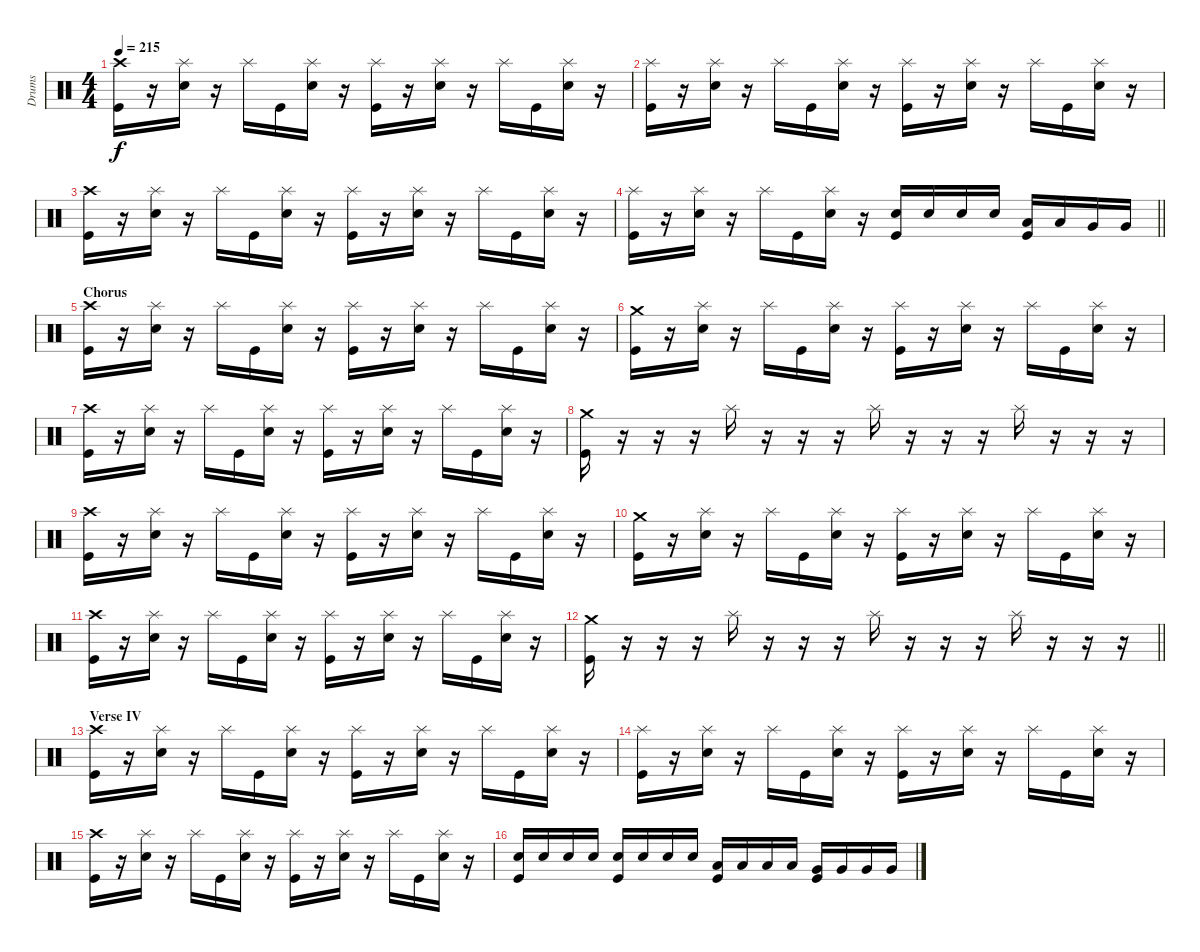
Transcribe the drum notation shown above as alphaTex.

\track ("Drums" "Drums") {instrument percussion}
\staff {score}
\articulation defaults
\ts (4 4)
\tempo 215
\clef neutral
\ks c
("Crash high (hit)" "Kick (hit)").16{dy f} r.16 ("Splash (hit)" "Electric Snare (hit)").16 r.16 "Splash (hit)".16 "Kick (hit)".16 ("Splash (hit)" "Electric Snare (hit)").16 r.16 ("Splash (hit)" "Kick (hit)").16 r.16 ("Splash (hit)" "Electric Snare (hit)").16 r.16 "Splash (hit)".16 "Kick (hit)".16 ("Splash (hit)" "Electric Snare (hit)").16 r.16 |
("Splash (hit)" "Kick (hit)").16 r.16 ("Splash (hit)" "Electric Snare (hit)").16 r.16 "Splash (hit)".16 "Kick (hit)".16 ("Splash (hit)" "Electric Snare (hit)").16 r.16 ("Splash (hit)" "Kick (hit)").16 r.16 ("Splash (hit)" "Electric Snare (hit)").16 r.16 "Splash (hit)".16 "Kick (hit)".16 ("Splash (hit)" "Electric Snare (hit)").16 r.16 |
("Crash high (hit)" "Kick (hit)").16 r.16 ("Splash (hit)" "Electric Snare (hit)").16 r.16 "Splash (hit)".16 "Kick (hit)".16 ("Splash (hit)" "Electric Snare (hit)").16 r.16 ("Splash (hit)" "Kick (hit)").16 r.16 ("Splash (hit)" "Electric Snare (hit)").16 r.16 "Splash (hit)".16 "Kick (hit)".16 ("Splash (hit)" "Electric Snare (hit)").16 r.16 |
\barLineRight lightlight
("Splash (hit)" "Kick (hit)").16 r.16 ("Splash (hit)" "Electric Snare (hit)").16 r.16 "Splash (hit)".16 "Kick (hit)".16 ("Splash (hit)" "Electric Snare (hit)").16 r.16 ("Electric Snare (hit)" "Kick (hit)").16 "Electric Snare (hit)".16 "Electric Snare (hit)".16 "Electric Snare (hit)".16 ("Low Tom (hit)" "Kick (hit)").16 "Low Tom (hit)".16 "Very Low Tom (hit)".16 "Very Low Tom (hit)".16 |
\section ("" "Chorus")
("Crash high (hit)" "Kick (hit)").16 r.16 ("Splash (hit)" "Electric Snare (hit)").16 r.16 "Splash (hit)".16 "Kick (hit)".16 ("Splash (hit)" "Electric Snare (hit)").16 r.16 ("Splash (hit)" "Kick (hit)").16 r.16 ("Splash (hit)" "Electric Snare (hit)").16 r.16 "Splash (hit)".16 "Kick (hit)".16 ("Splash (hit)" "Electric Snare (hit)").16 r.16 |
("Crash medium (hit)" "Kick (hit)").16 r.16 ("Splash (hit)" "Electric Snare (hit)").16 r.16 "Splash (hit)".16 "Kick (hit)".16 ("Splash (hit)" "Electric Snare (hit)").16 r.16 ("Splash (hit)" "Kick (hit)").16 r.16 ("Splash (hit)" "Electric Snare (hit)").16 r.16 "Splash (hit)".16 "Kick (hit)".16 ("Splash (hit)" "Electric Snare (hit)").16 r.16 |
("Crash high (hit)" "Kick (hit)").16 r.16 ("Splash (hit)" "Electric Snare (hit)").16 r.16 "Splash (hit)".16 "Kick (hit)".16 ("Splash (hit)" "Electric Snare (hit)").16 r.16 ("Splash (hit)" "Kick (hit)").16 r.16 ("Splash (hit)" "Electric Snare (hit)").16 r.16 "Splash (hit)".16 "Kick (hit)".16 ("Splash (hit)" "Electric Snare (hit)").16 r.16 |
("Crash medium (hit)" "Kick (hit)").16 r.16 r.16 r.16 "Splash (hit)".16 r.16 r.16 r.16 "Splash (hit)".16 r.16 r.16 r.16 "Splash (hit)".16 r.16 r.16 r.16 |
("Crash high (hit)" "Kick (hit)").16 r.16 ("Splash (hit)" "Electric Snare (hit)").16 r.16 "Splash (hit)".16 "Kick (hit)".16 ("Splash (hit)" "Electric Snare (hit)").16 r.16 ("Splash (hit)" "Kick (hit)").16 r.16 ("Splash (hit)" "Electric Snare (hit)").16 r.16 "Splash (hit)".16 "Kick (hit)".16 ("Splash (hit)" "Electric Snare (hit)").16 r.16 |
("Crash medium (hit)" "Kick (hit)").16 r.16 ("Splash (hit)" "Electric Snare (hit)").16 r.16 "Splash (hit)".16 "Kick (hit)".16 ("Splash (hit)" "Electric Snare (hit)").16 r.16 ("Splash (hit)" "Kick (hit)").16 r.16 ("Splash (hit)" "Electric Snare (hit)").16 r.16 "Splash (hit)".16 "Kick (hit)".16 ("Splash (hit)" "Electric Snare (hit)").16 r.16 |
("Crash high (hit)" "Kick (hit)").16 r.16 ("Splash (hit)" "Electric Snare (hit)").16 r.16 "Splash (hit)".16 "Kick (hit)".16 ("Splash (hit)" "Electric Snare (hit)").16 r.16 ("Splash (hit)" "Kick (hit)").16 r.16 ("Splash (hit)" "Electric Snare (hit)").16 r.16 "Splash (hit)".16 "Kick (hit)".16 ("Splash (hit)" "Electric Snare (hit)").16 r.16 |
\barLineRight lightlight
("Crash medium (hit)" "Kick (hit)").16 r.16 r.16 r.16 "Splash (hit)".16 r.16 r.16 r.16 "Splash (hit)".16 r.16 r.16 r.16 "Splash (hit)".16 r.16 r.16 r.16 |
\section ("" "Verse IV")
("Crash high (hit)" "Kick (hit)").16 r.16 ("Splash (hit)" "Electric Snare (hit)").16 r.16 "Splash (hit)".16 "Kick (hit)".16 ("Splash (hit)" "Electric Snare (hit)").16 r.16 ("Splash (hit)" "Kick (hit)").16 r.16 ("Splash (hit)" "Electric Snare (hit)").16 r.16 "Splash (hit)".16 "Kick (hit)".16 ("Splash (hit)" "Electric Snare (hit)").16 r.16 |
("Splash (hit)" "Kick (hit)").16 r.16 ("Splash (hit)" "Electric Snare (hit)").16 r.16 "Splash (hit)".16 "Kick (hit)".16 ("Splash (hit)" "Electric Snare (hit)").16 r.16 ("Splash (hit)" "Kick (hit)").16 r.16 ("Splash (hit)" "Electric Snare (hit)").16 r.16 "Splash (hit)".16 "Kick (hit)".16 ("Splash (hit)" "Electric Snare (hit)").16 r.16 |
("Crash high (hit)" "Kick (hit)").16 r.16 ("Splash (hit)" "Electric Snare (hit)").16 r.16 "Splash (hit)".16 "Kick (hit)".16 ("Splash (hit)" "Electric Snare (hit)").16 r.16 ("Splash (hit)" "Kick (hit)").16 r.16 ("Splash (hit)" "Electric Snare (hit)").16 r.16 "Splash (hit)".16 "Kick (hit)".16 ("Splash (hit)" "Electric Snare (hit)").16 r.16 |
("Electric Snare (hit)" "Kick (hit)").16 "Electric Snare (hit)".16 "Electric Snare (hit)".16 "Electric Snare (hit)".16 ("Electric Snare (hit)" "Kick (hit)").16 "Electric Snare (hit)".16 "Electric Snare (hit)".16 "Electric Snare (hit)".16 ("Low Tom (hit)" "Kick (hit)").16 "Low Tom (hit)".16 "Low Tom (hit)".16 "Low Tom (hit)".16 ("Very Low Tom (hit)" "Kick (hit)").16 "Very Low Tom (hit)".16 "Very Low Tom (hit)".16 "Very Low Tom (hit)".16
